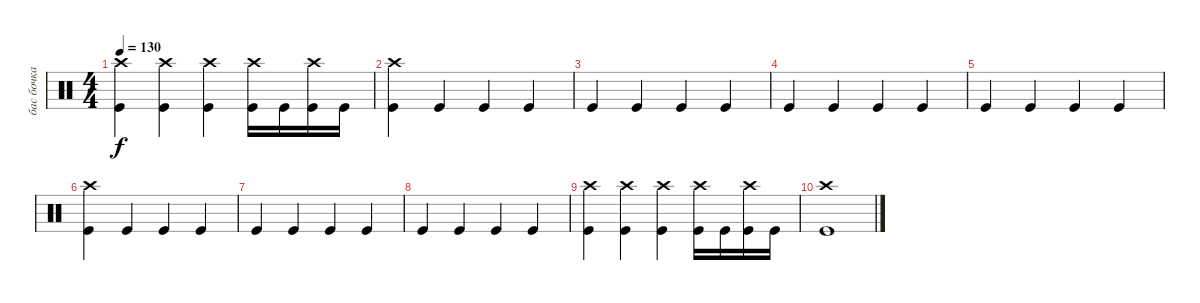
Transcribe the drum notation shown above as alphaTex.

\track ("бас бочка" "бас бочка") {instrument percussion}
\staff {score}
\articulation defaults
\ts (4 4)
\tempo 130
\clef neutral
\ks c
("Crash high (hit)" "Kick (hit)").4{dy f} ("Crash high (hit)" "Kick (hit)").4 ("Crash high (hit)" "Kick (hit)").4 ("Crash high (hit)" "Kick (hit)").16 "Kick (hit)".16 ("Crash high (hit)" "Kick (hit)").16 "Kick (hit)".16 |
("Crash high (hit)" "Kick (hit)").4 "Kick (hit)".4 "Kick (hit)".4 "Kick (hit)".4 |
"Kick (hit)".4 "Kick (hit)".4 "Kick (hit)".4 "Kick (hit)".4 |
"Kick (hit)".4 "Kick (hit)".4 "Kick (hit)".4 "Kick (hit)".4 |
"Kick (hit)".4 "Kick (hit)".4 "Kick (hit)".4 "Kick (hit)".4 |
("Crash high (hit)" "Kick (hit)").4 "Kick (hit)".4 "Kick (hit)".4 "Kick (hit)".4 |
"Kick (hit)".4 "Kick (hit)".4 "Kick (hit)".4 "Kick (hit)".4 |
"Kick (hit)".4 "Kick (hit)".4 "Kick (hit)".4 "Kick (hit)".4 |
("Crash high (hit)" "Kick (hit)").4 ("Crash high (hit)" "Kick (hit)").4 ("Crash high (hit)" "Kick (hit)").4 ("Crash high (hit)" "Kick (hit)").16 "Kick (hit)".16 ("Crash high (hit)" "Kick (hit)").16 "Kick (hit)".16 |
("Crash high (hit)" "Kick (hit)").1
